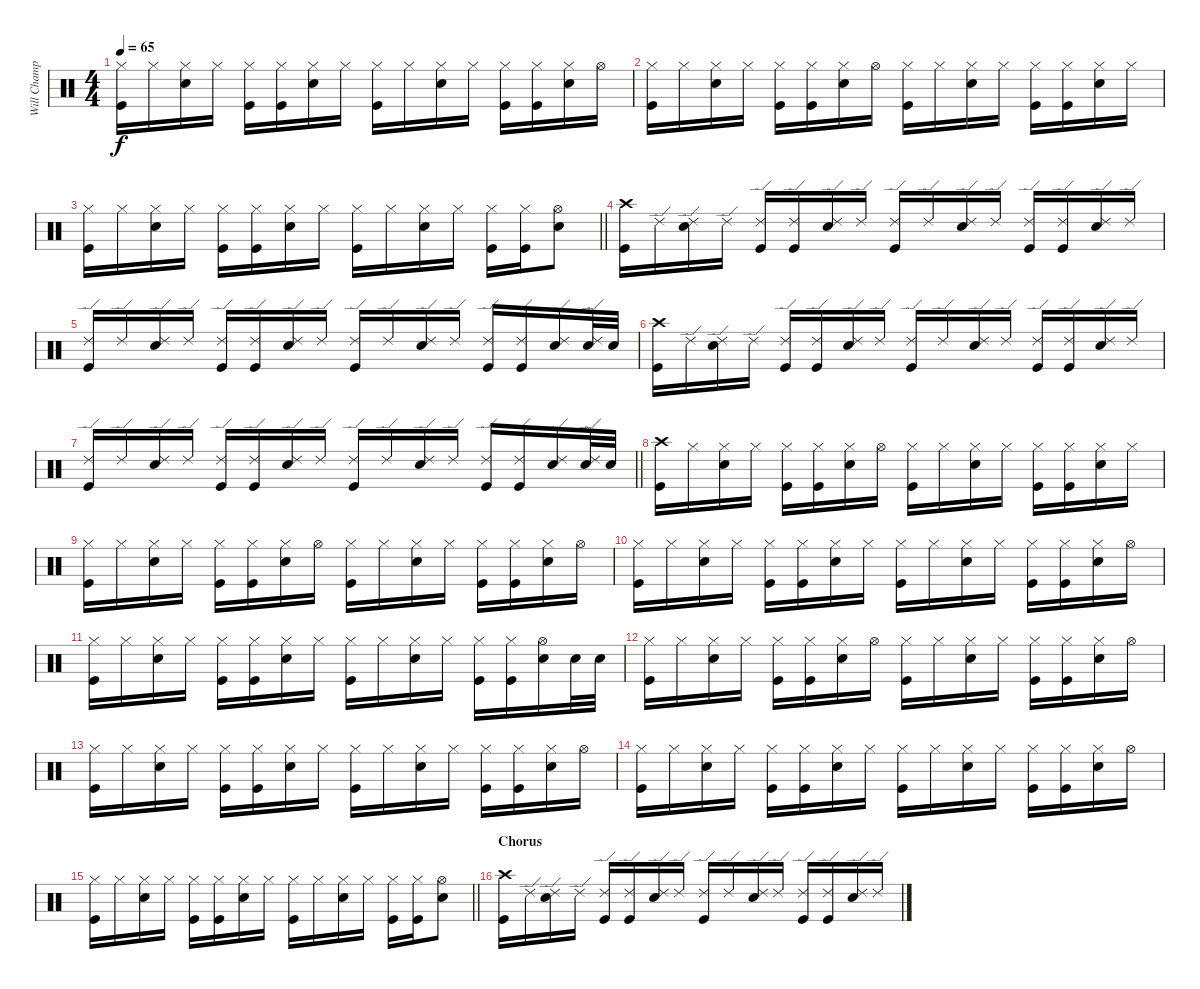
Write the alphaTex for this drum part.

\track ("Will Champion-Drums" "Will Champ") {instrument percussion}
\staff {score}
\articulation defaults
\ts (4 4)
\tempo 65
\clef neutral
\ks c
("Hi-Hat (closed)" "Kick (hit)").16{dy f} "Hi-Hat (closed)".16 ("Hi-Hat (closed)" "Snare (hit) 2").16 "Hi-Hat (closed)".16 ("Hi-Hat (closed)" "Kick (hit)").16 ("Hi-Hat (closed)" "Kick (hit)").16 ("Hi-Hat (closed)" "Snare (hit) 2").16 "Hi-Hat (closed)".16 ("Hi-Hat (closed)" "Kick (hit)").16 "Hi-Hat (closed)".16 ("Hi-Hat (closed)" "Snare (hit) 2").16 "Hi-Hat (closed)".16 ("Hi-Hat (closed)" "Kick (hit)").16 ("Hi-Hat (closed)" "Kick (hit)").16 ("Hi-Hat (closed)" "Snare (hit) 2").16 "Hi-Hat (open)".16 |
("Hi-Hat (closed)" "Kick (hit)").16 "Hi-Hat (closed)".16 ("Hi-Hat (closed)" "Snare (hit) 2").16 "Hi-Hat (closed)".16 ("Hi-Hat (closed)" "Kick (hit)").16 ("Hi-Hat (closed)" "Kick (hit)").16 ("Hi-Hat (closed)" "Snare (hit) 2").16 "Hi-Hat (open)".16 ("Hi-Hat (closed)" "Kick (hit)").16 "Hi-Hat (closed)".16 ("Hi-Hat (closed)" "Snare (hit) 2").16 "Hi-Hat (closed)".16 ("Hi-Hat (closed)" "Kick (hit)").16 ("Hi-Hat (closed)" "Kick (hit)").16 ("Hi-Hat (closed)" "Snare (hit) 2").16 "Hi-Hat (closed)".16 |
\barLineRight lightlight
("Hi-Hat (closed)" "Kick (hit)").16 "Hi-Hat (closed)".16 ("Hi-Hat (closed)" "Snare (hit) 2").16 "Hi-Hat (closed)".16 ("Hi-Hat (closed)" "Kick (hit)").16 ("Hi-Hat (closed)" "Kick (hit)").16 ("Hi-Hat (closed)" "Snare (hit) 2").16 "Hi-Hat (closed)".16 ("Hi-Hat (closed)" "Kick (hit)").16 "Hi-Hat (closed)".16 ("Hi-Hat (closed)" "Snare (hit) 2").16 "Hi-Hat (closed)".16 ("Hi-Hat (closed)" "Kick (hit)").16 ("Hi-Hat (closed)" "Kick (hit)").16 ("Hi-Hat (open)" "Snare (hit) 2").8 |
("Crash high (hit)" "Kick (hit)").16 "Ride (edge) 2".16 ("Ride (edge) 2" "Snare (hit) 2").16 "Ride (edge) 2".16 ("Ride (edge) 2" "Kick (hit)").16 ("Ride (edge) 2" "Kick (hit)").16 ("Ride (edge) 2" "Snare (hit) 2").16 "Ride (edge) 2".16 ("Ride (edge) 2" "Kick (hit)").16 "Ride (edge) 2".16 ("Ride (edge) 2" "Snare (hit) 2").16 "Ride (edge) 2".16 ("Ride (edge) 2" "Kick (hit)").16 ("Ride (edge) 2" "Kick (hit)").16 ("Ride (edge) 2" "Snare (hit) 2").16 "Ride (edge) 2".16 |
("Ride (edge) 2" "Kick (hit)").16 "Ride (edge) 2".16 ("Ride (edge) 2" "Snare (hit) 2").16 "Ride (edge) 2".16 ("Ride (edge) 2" "Kick (hit)").16 ("Ride (edge) 2" "Kick (hit)").16 ("Ride (edge) 2" "Snare (hit) 2").16 "Ride (edge) 2".16 ("Ride (edge) 2" "Kick (hit)").16 "Ride (edge) 2".16 ("Ride (edge) 2" "Snare (hit) 2").16 "Ride (edge) 2".16 ("Ride (edge) 2" "Kick (hit)").16 ("Ride (edge) 2" "Kick (hit)").16 ("Ride (edge) 2" "Snare (hit) 2").16 ("Ride (edge) 2" "Snare (hit) 2").32 "Snare (hit) 2".32 |
("Crash high (hit)" "Kick (hit)").16 "Ride (edge) 2".16 ("Ride (edge) 2" "Snare (hit) 2").16 "Ride (edge) 2".16 ("Ride (edge) 2" "Kick (hit)").16 ("Ride (edge) 2" "Kick (hit)").16 ("Ride (edge) 2" "Snare (hit) 2").16 "Ride (edge) 2".16 ("Ride (edge) 2" "Kick (hit)").16 "Ride (edge) 2".16 ("Ride (edge) 2" "Snare (hit) 2").16 "Ride (edge) 2".16 ("Ride (edge) 2" "Kick (hit)").16 ("Ride (edge) 2" "Kick (hit)").16 ("Ride (edge) 2" "Snare (hit) 2").16 "Ride (edge) 2".16 |
\barLineRight lightlight
("Ride (edge) 2" "Kick (hit)").16 "Ride (edge) 2".16 ("Ride (edge) 2" "Snare (hit) 2").16 "Ride (edge) 2".16 ("Ride (edge) 2" "Kick (hit)").16 ("Ride (edge) 2" "Kick (hit)").16 ("Ride (edge) 2" "Snare (hit) 2").16 "Ride (edge) 2".16 ("Ride (edge) 2" "Kick (hit)").16 "Ride (edge) 2".16 ("Ride (edge) 2" "Snare (hit) 2").16 "Ride (edge) 2".16 ("Ride (edge) 2" "Kick (hit)").16 ("Ride (edge) 2" "Kick (hit)").16 ("Ride (edge) 2" "Snare (hit) 2").16 ("Ride (edge) 2" "Snare (hit) 2").32 "Snare (hit) 2".32 |
("Crash high (hit)" "Kick (hit)").16 "Hi-Hat (closed)".16 ("Hi-Hat (closed)" "Snare (hit) 2").16 "Hi-Hat (closed)".16 ("Hi-Hat (closed)" "Kick (hit)").16 ("Hi-Hat (closed)" "Kick (hit)").16 ("Hi-Hat (closed)" "Snare (hit) 2").16 "Hi-Hat (open)".16 ("Hi-Hat (closed)" "Kick (hit)").16 "Hi-Hat (closed)".16 ("Hi-Hat (closed)" "Snare (hit) 2").16 "Hi-Hat (closed)".16 ("Hi-Hat (closed)" "Kick (hit)").16 ("Hi-Hat (closed)" "Kick (hit)").16 ("Hi-Hat (closed)" "Snare (hit) 2").16 "Hi-Hat (closed)".16 |
("Hi-Hat (closed)" "Kick (hit)").16 "Hi-Hat (closed)".16 ("Hi-Hat (closed)" "Snare (hit) 2").16 "Hi-Hat (closed)".16 ("Hi-Hat (closed)" "Kick (hit)").16 ("Hi-Hat (closed)" "Kick (hit)").16 ("Hi-Hat (closed)" "Snare (hit) 2").16 "Hi-Hat (open)".16 ("Hi-Hat (closed)" "Kick (hit)").16 "Hi-Hat (closed)".16 ("Hi-Hat (closed)" "Snare (hit) 2").16 "Hi-Hat (closed)".16 ("Hi-Hat (closed)" "Kick (hit)").16 ("Hi-Hat (closed)" "Kick (hit)").16 ("Hi-Hat (closed)" "Snare (hit) 2").16 "Hi-Hat (open)".16 |
("Hi-Hat (closed)" "Kick (hit)").16 "Hi-Hat (closed)".16 ("Hi-Hat (closed)" "Snare (hit) 2").16 "Hi-Hat (closed)".16 ("Hi-Hat (closed)" "Kick (hit)").16 ("Hi-Hat (closed)" "Kick (hit)").16 ("Hi-Hat (closed)" "Snare (hit) 2").16 "Hi-Hat (closed)".16 ("Hi-Hat (closed)" "Kick (hit)").16 "Hi-Hat (closed)".16 ("Hi-Hat (closed)" "Snare (hit) 2").16 "Hi-Hat (closed)".16 ("Hi-Hat (closed)" "Kick (hit)").16 ("Hi-Hat (closed)" "Kick (hit)").16 ("Hi-Hat (closed)" "Snare (hit) 2").16 "Hi-Hat (open)".16 |
("Hi-Hat (closed)" "Kick (hit)").16 "Hi-Hat (closed)".16 ("Hi-Hat (closed)" "Snare (hit) 2").16 "Hi-Hat (closed)".16 ("Hi-Hat (closed)" "Kick (hit)").16 ("Hi-Hat (closed)" "Kick (hit)").16 ("Hi-Hat (closed)" "Snare (hit) 2").16 "Hi-Hat (closed)".16 ("Hi-Hat (closed)" "Kick (hit)").16 "Hi-Hat (closed)".16 ("Hi-Hat (closed)" "Snare (hit) 2").16 "Hi-Hat (closed)".16 ("Hi-Hat (closed)" "Kick (hit)").16 ("Hi-Hat (closed)" "Kick (hit)").16 ("Hi-Hat (open)" "Snare (hit) 2").16 "Snare (hit) 2".32 "Snare (hit) 2".32 |
("Hi-Hat (closed)" "Kick (hit)").16 "Hi-Hat (closed)".16 ("Hi-Hat (closed)" "Snare (hit) 2").16 "Hi-Hat (closed)".16 ("Hi-Hat (closed)" "Kick (hit)").16 ("Hi-Hat (closed)" "Kick (hit)").16 ("Hi-Hat (closed)" "Snare (hit) 2").16 "Hi-Hat (open)".16 ("Hi-Hat (closed)" "Kick (hit)").16 "Hi-Hat (closed)".16 ("Hi-Hat (closed)" "Snare (hit) 2").16 "Hi-Hat (closed)".16 ("Hi-Hat (closed)" "Kick (hit)").16 ("Hi-Hat (closed)" "Kick (hit)").16 ("Hi-Hat (closed)" "Snare (hit) 2").16 "Hi-Hat (open)".16 |
("Hi-Hat (closed)" "Kick (hit)").16 "Hi-Hat (closed)".16 ("Hi-Hat (closed)" "Snare (hit) 2").16 "Hi-Hat (closed)".16 ("Hi-Hat (closed)" "Kick (hit)").16 ("Hi-Hat (closed)" "Kick (hit)").16 ("Hi-Hat (closed)" "Snare (hit) 2").16 "Hi-Hat (closed)".16 ("Hi-Hat (closed)" "Kick (hit)").16 "Hi-Hat (closed)".16 ("Hi-Hat (closed)" "Snare (hit) 2").16 "Hi-Hat (closed)".16 ("Hi-Hat (closed)" "Kick (hit)").16 ("Hi-Hat (closed)" "Kick (hit)").16 ("Hi-Hat (closed)" "Snare (hit) 2").16 "Hi-Hat (open)".16 |
("Hi-Hat (closed)" "Kick (hit)").16 "Hi-Hat (closed)".16 ("Hi-Hat (closed)" "Snare (hit) 2").16 "Hi-Hat (closed)".16 ("Hi-Hat (closed)" "Kick (hit)").16 ("Hi-Hat (closed)" "Kick (hit)").16 ("Hi-Hat (closed)" "Snare (hit) 2").16 "Hi-Hat (closed)".16 ("Hi-Hat (closed)" "Kick (hit)").16 "Hi-Hat (closed)".16 ("Hi-Hat (closed)" "Snare (hit) 2").16 "Hi-Hat (closed)".16 ("Hi-Hat (closed)" "Kick (hit)").16 ("Hi-Hat (closed)" "Kick (hit)").16 ("Hi-Hat (closed)" "Snare (hit) 2").16 "Hi-Hat (open)".16 |
\barLineRight lightlight
("Hi-Hat (closed)" "Kick (hit)").16 "Hi-Hat (closed)".16 ("Hi-Hat (closed)" "Snare (hit) 2").16 "Hi-Hat (closed)".16 ("Hi-Hat (closed)" "Kick (hit)").16 ("Hi-Hat (closed)" "Kick (hit)").16 ("Hi-Hat (closed)" "Snare (hit) 2").16 "Hi-Hat (closed)".16 ("Hi-Hat (closed)" "Kick (hit)").16 "Hi-Hat (closed)".16 ("Hi-Hat (closed)" "Snare (hit) 2").16 "Hi-Hat (closed)".16 ("Hi-Hat (closed)" "Kick (hit)").16 ("Hi-Hat (closed)" "Kick (hit)").16 ("Hi-Hat (open)" "Snare (hit) 2").8 |
\section ("" "Chorus")
("Crash high (hit)" "Kick (hit)").16 "Ride (edge) 2".16 ("Ride (edge) 2" "Snare (hit) 2").16 "Ride (edge) 2".16 ("Ride (edge) 2" "Kick (hit)").16 ("Ride (edge) 2" "Kick (hit)").16 ("Ride (edge) 2" "Snare (hit) 2").16 "Ride (edge) 2".16 ("Ride (edge) 2" "Kick (hit)").16 "Ride (edge) 2".16 ("Ride (edge) 2" "Snare (hit) 2").16 "Ride (edge) 2".16 ("Ride (edge) 2" "Kick (hit)").16 ("Ride (edge) 2" "Kick (hit)").16 ("Ride (edge) 2" "Snare (hit) 2").16 "Ride (edge) 2".16
